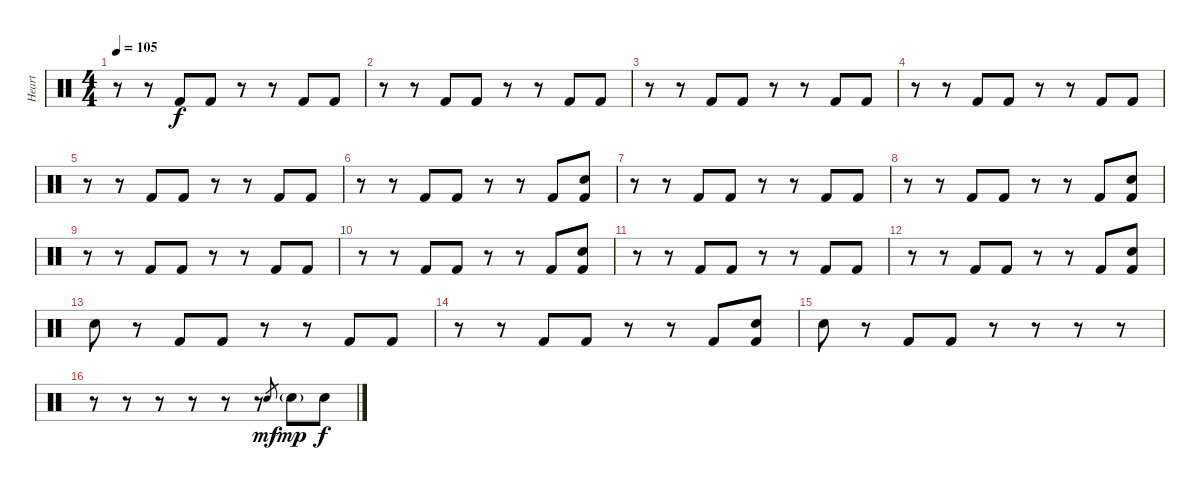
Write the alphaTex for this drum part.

\track ("Heart" "Heart") {instrument percussion}
\staff {score}
\articulation defaults
\ts (4 4)
\tempo 105
\clef neutral
\ks c
r.8{dy f} r.8 "Kick (hit) 2".8 "Kick (hit) 2".8 r.8 r.8 "Kick (hit) 2".8 "Kick (hit) 2".8 |
r.8 r.8 "Kick (hit) 2".8 "Kick (hit) 2".8 r.8 r.8 "Kick (hit) 2".8 "Kick (hit) 2".8 |
r.8 r.8 "Kick (hit) 2".8 "Kick (hit) 2".8 r.8 r.8 "Kick (hit) 2".8 "Kick (hit) 2".8 |
r.8 r.8 "Kick (hit) 2".8 "Kick (hit) 2".8 r.8 r.8 "Kick (hit) 2".8 "Kick (hit) 2".8 |
r.8 r.8 "Kick (hit) 2".8 "Kick (hit) 2".8 r.8 r.8 "Kick (hit) 2".8 "Kick (hit) 2".8 |
r.8 r.8 "Kick (hit) 2".8 "Kick (hit) 2".8 r.8 r.8 "Kick (hit) 2".8 ("Electric Snare (hit)" "Kick (hit) 2").8 |
r.8 r.8 "Kick (hit) 2".8 "Kick (hit) 2".8 r.8 r.8 "Kick (hit) 2".8 "Kick (hit) 2".8 |
r.8 r.8 "Kick (hit) 2".8 "Kick (hit) 2".8 r.8 r.8 "Kick (hit) 2".8 ("Electric Snare (hit)" "Kick (hit) 2").8 |
r.8 r.8 "Kick (hit) 2".8 "Kick (hit) 2".8 r.8 r.8 "Kick (hit) 2".8 "Kick (hit) 2".8 |
r.8 r.8 "Kick (hit) 2".8 "Kick (hit) 2".8 r.8 r.8 "Kick (hit) 2".8 ("Electric Snare (hit)" "Kick (hit) 2").8 |
r.8 r.8 "Kick (hit) 2".8 "Kick (hit) 2".8 r.8 r.8 "Kick (hit) 2".8 "Kick (hit) 2".8 |
r.8 r.8 "Kick (hit) 2".8 "Kick (hit) 2".8 r.8 r.8 "Kick (hit) 2".8 ("Electric Snare (hit)" "Kick (hit) 2").8 |
"Electric Snare (hit)".8 r.8 "Kick (hit) 2".8 "Kick (hit) 2".8 r.8 r.8 "Kick (hit) 2".8 "Kick (hit) 2".8 |
r.8 r.8 "Kick (hit) 2".8 "Kick (hit) 2".8 r.8 r.8 "Kick (hit) 2".8 ("Electric Snare (hit)" "Kick (hit) 2").8 |
"Electric Snare (hit)".8 r.8 "Kick (hit) 2".8 "Kick (hit) 2".8 r.8 r.8 r.8 r.8 |
r.8 r.8 r.8 r.8 r.8 r.8 "Electric Snare (hit)".8{gr dy mf} "Electric Snare (hit)"{g}.8{dy mp} "Electric Snare (hit)".8{dy f}
